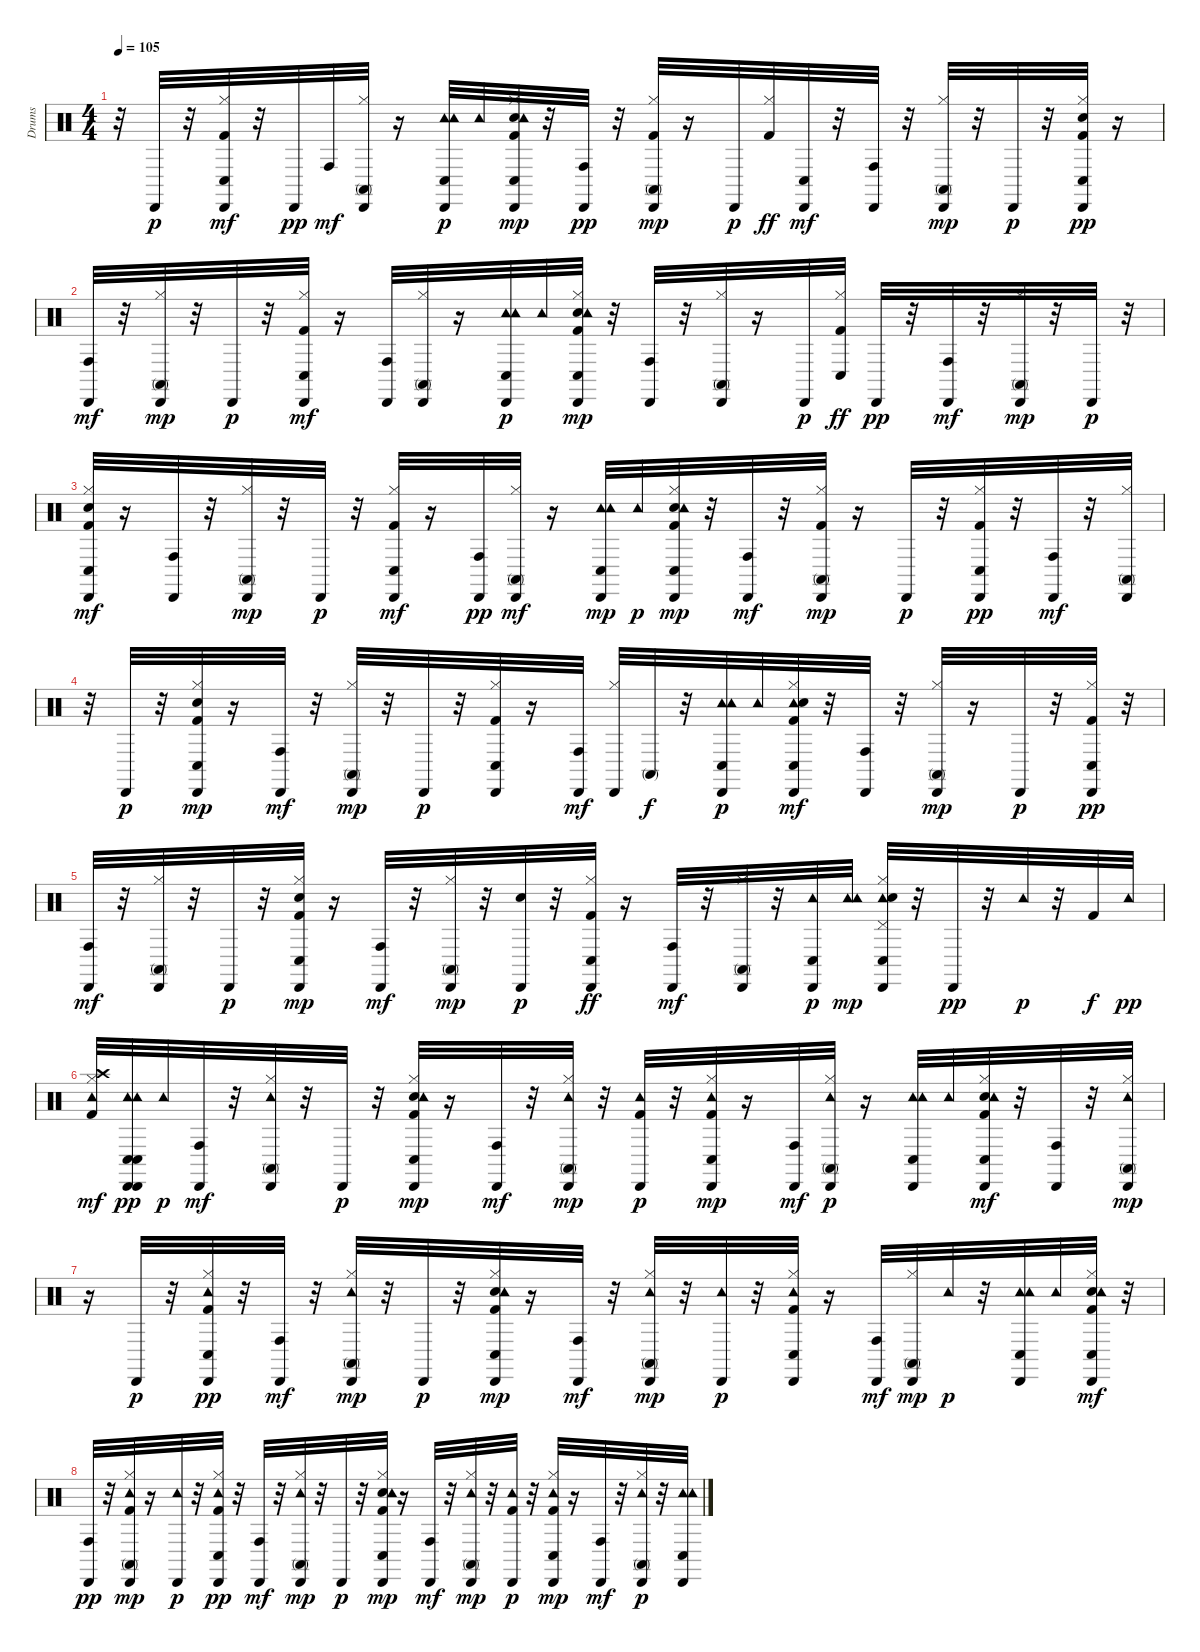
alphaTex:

\track ("Drums" "Drums") {instrument percussion}
\staff {score}
\articulation defaults
\ts (4 4)
\tempo 105
\clef neutral
\ks c
r.32{dy mp} "Cabasa (hit)".32{dy p} r.32 ("Hi-Hat (closed)" "Kick (hit) 2" "Cabasa (hit)" "Conga low (hit)").32{dy mf} r.32 "Cabasa (hit)".32{dy pp} "Conga high (hit)".32{dy mf} ("Cabasa (hit)" "Hi-Hat (closed)" "Conga high (mute)").32 r.16 ("Tambourine (hit)" "Cabasa (hit)" "Conga low (hit)" "Tambourine (hit)").32{dy p} "Tambourine (hit)".32 ("Cabasa (hit)" "Hi-Hat (closed)" "Snare (hit) 2" "Kick (hit) 2" "Conga low (hit)" "Tambourine (hit)").32{dy mp} r.32 ("Conga high (hit)" "Cabasa (hit)").32{dy pp} r.32 ("Conga high (mute)" "Hi-Hat (closed)" "Kick (hit) 2" "Cabasa (hit)").32{dy mp} r.16 "Cabasa (hit)".32{dy p} ("Hi-Hat (closed)" "Kick (hit) 2").32{dy ff} ("Cabasa (hit)" "Conga low (hit)").32{dy mf} r.32 ("Cabasa (hit)" "Conga high (hit)").32 r.32 ("Hi-Hat (closed)" "Conga high (mute)" "Cabasa (hit)").32{dy mp} r.32 "Cabasa (hit)".32{dy p} r.32 ("Conga low (hit)" "Hi-Hat (closed)" "Snare (hit) 2" "Kick (hit) 2" "Cabasa (hit)").32{dy pp} r.16 |
("Cabasa (hit)" "Conga high (hit)").32{dy mf} r.32 ("Hi-Hat (closed)" "Cabasa (hit)" "Conga high (mute)").32{dy mp} r.32 "Cabasa (hit)".32{dy p} r.32 ("Cabasa (hit)" "Hi-Hat (closed)" "Kick (hit) 2" "Conga low (hit)").32{dy mf} r.16 ("Cabasa (hit)" "Conga high (hit)").32 ("Cabasa (hit)" "Hi-Hat (closed)" "Conga high (mute)").32 r.16 ("Tambourine (hit)" "Cabasa (hit)" "Conga low (hit)" "Tambourine (hit)").32{dy p} "Tambourine (hit)".32 ("Hi-Hat (closed)" "Snare (hit) 2" "Kick (hit) 2" "Cabasa (hit)" "Conga low (hit)" "Tambourine (hit)").32{dy mp} r.32 ("Cabasa (hit)" "Conga high (hit)").32 r.32 ("Hi-Hat (closed)" "Conga high (mute)" "Cabasa (hit)").32 r.16 "Cabasa (hit)".32{dy p} ("Conga low (hit)" "Hi-Hat (closed)" "Kick (hit) 2").32{dy ff} "Cabasa (hit)".32{dy pp} r.32 ("Cabasa (hit)" "Conga high (hit)").32{dy mf} r.32 ("Conga high (mute)" "Hi-Hat (closed)" "Cabasa (hit)").32{dy mp} r.32 "Cabasa (hit)".32{dy p} r.32 |
("Hi-Hat (closed)" "Snare (hit) 2" "Kick (hit) 2" "Cabasa (hit)" "Conga low (hit)").32{dy mf} r.16 ("Cabasa (hit)" "Conga high (hit)").32 r.32 ("Hi-Hat (closed)" "Cabasa (hit)" "Conga high (mute)").32{dy mp} r.32 "Cabasa (hit)".32{dy p} r.32 ("Hi-Hat (closed)" "Kick (hit) 2" "Cabasa (hit)" "Conga low (hit)").32{dy mf} r.16 ("Conga high (hit)" "Cabasa (hit)").32{dy pp} ("Conga high (mute)" "Cabasa (hit)" "Hi-Hat (closed)").32{dy mf} r.16 ("Tambourine (hit)" "Cabasa (hit)" "Conga low (hit)" "Tambourine (hit)").32{dy mp} "Tambourine (hit)".32{dy p} ("Cabasa (hit)" "Hi-Hat (closed)" "Snare (hit) 2" "Kick (hit) 2" "Tambourine (hit)" "Conga low (hit)").32{dy mp} r.32 ("Cabasa (hit)" "Conga high (hit)").32{dy mf} r.32 ("Hi-Hat (closed)" "Kick (hit) 2" "Conga high (mute)" "Cabasa (hit)").32{dy mp} r.16 "Cabasa (hit)".32{dy p} r.32 ("Conga low (hit)" "Hi-Hat (closed)" "Kick (hit) 2" "Cabasa (hit)").32{dy pp} r.32 ("Cabasa (hit)" "Conga high (hit)").32{dy mf} r.32 ("Hi-Hat (closed)" "Cabasa (hit)" "Conga high (mute)").32 |
r.32 "Cabasa (hit)".32{dy p} r.32 ("Hi-Hat (closed)" "Snare (hit) 2" "Kick (hit) 2" "Cabasa (hit)" "Conga low (hit)").32{dy mp} r.16 ("Cabasa (hit)" "Conga high (hit)").32{dy mf} r.32 ("Hi-Hat (closed)" "Conga high (mute)" "Cabasa (hit)").32{dy mp} r.32 "Cabasa (hit)".32{dy p} r.32 ("Conga low (hit)" "Hi-Hat (closed)" "Kick (hit) 2" "Cabasa (hit)").32 r.16 ("Cabasa (hit)" "Conga high (hit)").32{dy mf} ("Cabasa (hit)" "Hi-Hat (closed)").32 "Conga high (mute)".32{dy f} r.32 ("Tambourine (hit)" "Cabasa (hit)" "Conga low (hit)" "Tambourine (hit)").32{dy p} "Tambourine (hit)".32 ("Cabasa (hit)" "Tambourine (hit)" "Hi-Hat (closed)" "Snare (hit) 2" "Kick (hit) 2" "Conga low (hit)").32{dy mf} r.32 ("Cabasa (hit)" "Conga high (hit)").32 r.32 ("Conga high (mute)" "Hi-Hat (closed)" "Cabasa (hit)").32{dy mp} r.16 "Cabasa (hit)".32{dy p} r.32 ("Hi-Hat (closed)" "Kick (hit) 2" "Conga low (hit)" "Cabasa (hit)").32{dy pp} r.32 |
("Cabasa (hit)" "Conga high (hit)").32{dy mf} r.32 ("Hi-Hat (closed)" "Cabasa (hit)" "Conga high (mute)").32 r.32 "Cabasa (hit)".32{dy p} r.32 ("Hi-Hat (closed)" "Snare (hit) 2" "Kick (hit) 2" "Cabasa (hit)" "Conga low (hit)").32{dy mp} r.16 ("Cabasa (hit)" "Conga high (hit)").32{dy mf} r.32 ("Conga high (mute)" "Hi-Hat (closed)" "Cabasa (hit)").32{dy mp} r.32 ("Hand Clap (hit)" "Cabasa (hit)").32{dy p} r.32 ("Cabasa (hit)" "Conga low (hit)" "Hi-Hat (closed)" "Kick (hit) 2").32{dy ff} r.16 ("Cabasa (hit)" "Conga high (hit)").32{dy mf} r.32 ("Cabasa (hit)" "Hi-Hat (closed)" "Conga high (mute)").32 r.32 ("Tambourine (hit)" "Cabasa (hit)" "Conga low (hit)").32{dy p} ("Tambourine (hit)" "Tambourine (hit)").32{dy mp} ("Pedal Hi-Hat (hit)" "Tambourine (hit)" "Cabasa (hit)" "Conga low (hit)" "Hi-Hat (closed)" "Hand Clap (hit)").32 r.32 "Cabasa (hit)".32{dy pp} r.32 "Tambourine (hit)".32{dy p} r.32 "Kick (hit) 2".32{dy f} "Tambourine (hit)".32{dy pp} |
("Tambourine (hit)" "Kick (hit) 2" "Hi-Hat (closed)" "Crash high (hit)").32{dy mf} ("Tambourine (hit)" "Cabasa (hit)" "Conga low (hit)" "Tambourine (hit)" "Conga low (hit)" "Cabasa (hit)").32{dy pp} "Tambourine (hit)".32{dy p} ("Cabasa (hit)" "Conga high (hit)").32{dy mf} r.32 ("Hi-Hat (closed)" "Tambourine (hit)" "Cabasa (hit)" "Conga high (mute)").32 r.32 "Cabasa (hit)".32{dy p} r.32 ("Kick (hit) 2" "Snare (hit) 2" "Hi-Hat (closed)" "Conga low (hit)" "Cabasa (hit)" "Tambourine (hit)").32{dy mp} r.16 ("Cabasa (hit)" "Conga high (hit)").32{dy mf} r.32 ("Hi-Hat (closed)" "Tambourine (hit)" "Conga high (mute)" "Cabasa (hit)").32{dy mp} r.32 ("Tambourine (hit)" "Kick (hit) 2" "Cabasa (hit)").32{dy p} r.32 ("Kick (hit) 2" "Hi-Hat (closed)" "Cabasa (hit)" "Conga low (hit)" "Tambourine (hit)").32{dy mp} r.16 ("Cabasa (hit)" "Conga high (hit)").32{dy mf} ("Hi-Hat (closed)" "Cabasa (hit)" "Tambourine (hit)" "Conga high (mute)").32{dy p} r.16 ("Tambourine (hit)" "Cabasa (hit)" "Conga low (hit)" "Tambourine (hit)").32 "Tambourine (hit)".32 ("Cabasa (hit)" "Kick (hit) 2" "Snare (hit) 2" "Hi-Hat (closed)" "Tambourine (hit)" "Conga low (hit)").32{dy mf} r.32 ("Cabasa (hit)" "Conga high (hit)").32 r.32 ("Hi-Hat (closed)" "Conga high (mute)" "Tambourine (hit)" "Cabasa (hit)").32{dy mp} |
r.16 "Cabasa (hit)".32{dy p} r.32 ("Conga low (hit)" "Tambourine (hit)" "Kick (hit) 2" "Hi-Hat (closed)" "Cabasa (hit)").32{dy pp} r.32 ("Cabasa (hit)" "Conga high (hit)").32{dy mf} r.32 ("Hi-Hat (closed)" "Tambourine (hit)" "Conga high (mute)" "Cabasa (hit)").32{dy mp} r.32 "Cabasa (hit)".32{dy p} r.32 ("Kick (hit) 2" "Snare (hit) 2" "Hi-Hat (closed)" "Conga low (hit)" "Cabasa (hit)" "Tambourine (hit)").32{dy mp} r.16 ("Cabasa (hit)" "Conga high (hit)").32{dy mf} r.32 ("Conga high (mute)" "Hi-Hat (closed)" "Tambourine (hit)" "Cabasa (hit)").32{dy mp} r.32 ("Tambourine (hit)" "Cabasa (hit)").32{dy p} r.32 ("Conga low (hit)" "Kick (hit) 2" "Hi-Hat (closed)" "Tambourine (hit)" "Cabasa (hit)").32 r.16 ("Cabasa (hit)" "Conga high (hit)").32{dy mf} ("Hi-Hat (closed)" "Cabasa (hit)" "Conga high (mute)").32{dy mp} "Tambourine (hit)".32{dy p} r.32 ("Tambourine (hit)" "Cabasa (hit)" "Conga low (hit)" "Tambourine (hit)").32 "Tambourine (hit)".32 ("Cabasa (hit)" "Kick (hit) 2" "Snare (hit) 2" "Hi-Hat (closed)" "Tambourine (hit)" "Conga low (hit)").32{dy mf} r.32 |
("Conga high (hit)" "Cabasa (hit)").32{dy pp} r.32 ("Conga high (mute)" "Kick (hit) 2" "Hi-Hat (closed)" "Tambourine (hit)" "Cabasa (hit)").32{dy mp} r.16 ("Tambourine (hit)" "Cabasa (hit)").32{dy p} r.32 ("Kick (hit) 2" "Hi-Hat (closed)" "Conga low (hit)" "Tambourine (hit)" "Cabasa (hit)").32{dy pp} r.32 ("Cabasa (hit)" "Conga high (hit)").32{dy mf} r.32 ("Hi-Hat (closed)" "Tambourine (hit)" "Conga high (mute)" "Cabasa (hit)").32{dy mp} r.32 "Cabasa (hit)".32{dy p} r.32 ("Kick (hit) 2" "Snare (hit) 2" "Hi-Hat (closed)" "Cabasa (hit)" "Tambourine (hit)" "Conga low (hit)").32{dy mp} r.16 ("Cabasa (hit)" "Conga high (hit)").32{dy mf} r.32 ("Tambourine (hit)" "Hi-Hat (closed)" "Cabasa (hit)" "Conga high (mute)").32{dy mp} r.32 ("Tambourine (hit)" "Kick (hit) 2" "Cabasa (hit)").32{dy p} r.32 ("Conga low (hit)" "Kick (hit) 2" "Hi-Hat (closed)" "Cabasa (hit)" "Tambourine (hit)").32{dy mp} r.16 ("Cabasa (hit)" "Conga high (hit)").32{dy mf} r.32 ("Hi-Hat (closed)" "Cabasa (hit)" "Conga high (mute)" "Tambourine (hit)").32{dy p} r.32 ("Tambourine (hit)" "Cabasa (hit)" "Conga low (hit)" "Tambourine (hit)").32
